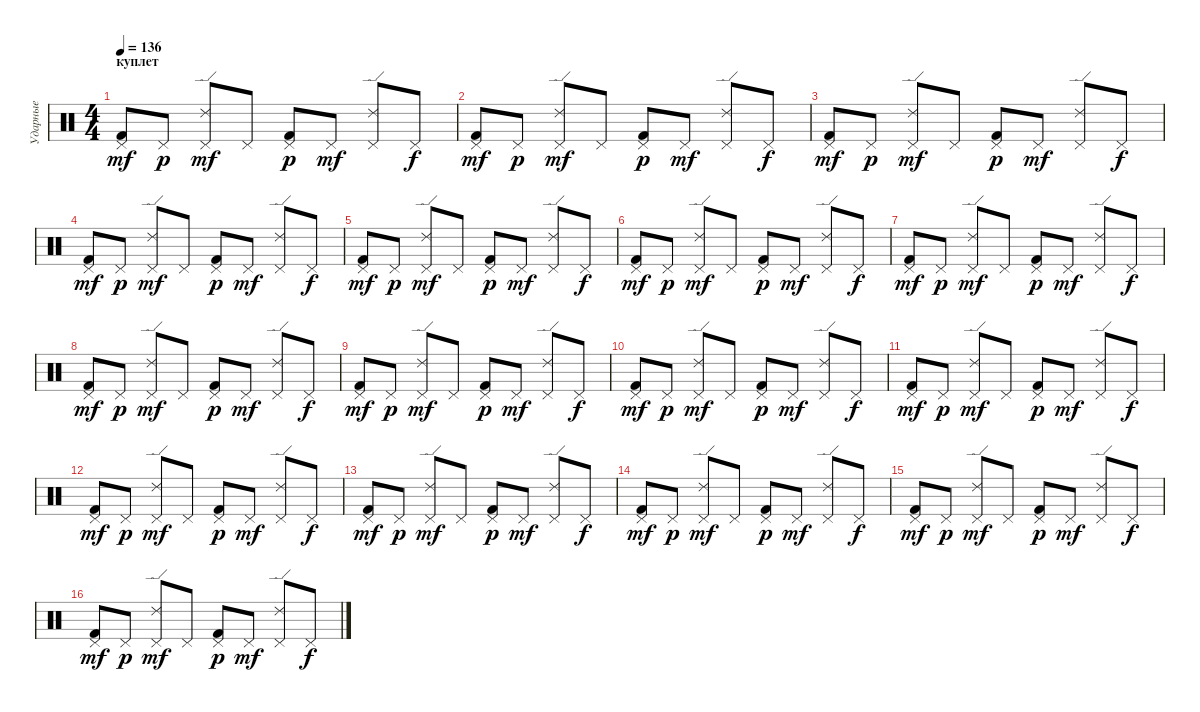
\track ("Ударные" "Ударные") {instrument percussion}
\staff {score}
\articulation defaults
\ts (4 4)
\section ("" "куплет")
\tempo 136
\clef neutral
\ks c
("Kick (hit) 2" "Pedal Hi-Hat (hit)").8{dy mf} "Pedal Hi-Hat (hit)".8{dy p} ("Ride (edge) 2" "Pedal Hi-Hat (hit)").8{dy mf} "Pedal Hi-Hat (hit)".8 ("Kick (hit) 2" "Pedal Hi-Hat (hit)").8{dy p} "Pedal Hi-Hat (hit)".8{dy mf} ("Ride (edge) 2" "Pedal Hi-Hat (hit)").8 "Pedal Hi-Hat (hit)".8{dy f} |
("Kick (hit) 2" "Pedal Hi-Hat (hit)").8{dy mf} "Pedal Hi-Hat (hit)".8{dy p} ("Ride (edge) 2" "Pedal Hi-Hat (hit)").8{dy mf} "Pedal Hi-Hat (hit)".8 ("Kick (hit) 2" "Pedal Hi-Hat (hit)").8{dy p} "Pedal Hi-Hat (hit)".8{dy mf} ("Ride (edge) 2" "Pedal Hi-Hat (hit)").8 "Pedal Hi-Hat (hit)".8{dy f} |
("Kick (hit) 2" "Pedal Hi-Hat (hit)").8{dy mf} "Pedal Hi-Hat (hit)".8{dy p} ("Ride (edge) 2" "Pedal Hi-Hat (hit)").8{dy mf} "Pedal Hi-Hat (hit)".8 ("Kick (hit) 2" "Pedal Hi-Hat (hit)").8{dy p} "Pedal Hi-Hat (hit)".8{dy mf} ("Ride (edge) 2" "Pedal Hi-Hat (hit)").8 "Pedal Hi-Hat (hit)".8{dy f} |
("Kick (hit) 2" "Pedal Hi-Hat (hit)").8{dy mf} "Pedal Hi-Hat (hit)".8{dy p} ("Ride (edge) 2" "Pedal Hi-Hat (hit)").8{dy mf} "Pedal Hi-Hat (hit)".8 ("Kick (hit) 2" "Pedal Hi-Hat (hit)").8{dy p} "Pedal Hi-Hat (hit)".8{dy mf} ("Ride (edge) 2" "Pedal Hi-Hat (hit)").8 "Pedal Hi-Hat (hit)".8{dy f} |
("Kick (hit) 2" "Pedal Hi-Hat (hit)").8{dy mf} "Pedal Hi-Hat (hit)".8{dy p} ("Ride (edge) 2" "Pedal Hi-Hat (hit)").8{dy mf} "Pedal Hi-Hat (hit)".8 ("Kick (hit) 2" "Pedal Hi-Hat (hit)").8{dy p} "Pedal Hi-Hat (hit)".8{dy mf} ("Ride (edge) 2" "Pedal Hi-Hat (hit)").8 "Pedal Hi-Hat (hit)".8{dy f} |
("Kick (hit) 2" "Pedal Hi-Hat (hit)").8{dy mf} "Pedal Hi-Hat (hit)".8{dy p} ("Ride (edge) 2" "Pedal Hi-Hat (hit)").8{dy mf} "Pedal Hi-Hat (hit)".8 ("Kick (hit) 2" "Pedal Hi-Hat (hit)").8{dy p} "Pedal Hi-Hat (hit)".8{dy mf} ("Ride (edge) 2" "Pedal Hi-Hat (hit)").8 "Pedal Hi-Hat (hit)".8{dy f} |
("Kick (hit) 2" "Pedal Hi-Hat (hit)").8{dy mf} "Pedal Hi-Hat (hit)".8{dy p} ("Ride (edge) 2" "Pedal Hi-Hat (hit)").8{dy mf} "Pedal Hi-Hat (hit)".8 ("Kick (hit) 2" "Pedal Hi-Hat (hit)").8{dy p} "Pedal Hi-Hat (hit)".8{dy mf} ("Ride (edge) 2" "Pedal Hi-Hat (hit)").8 "Pedal Hi-Hat (hit)".8{dy f} |
("Kick (hit) 2" "Pedal Hi-Hat (hit)").8{dy mf} "Pedal Hi-Hat (hit)".8{dy p} ("Ride (edge) 2" "Pedal Hi-Hat (hit)").8{dy mf} "Pedal Hi-Hat (hit)".8 ("Kick (hit) 2" "Pedal Hi-Hat (hit)").8{dy p} "Pedal Hi-Hat (hit)".8{dy mf} ("Ride (edge) 2" "Pedal Hi-Hat (hit)").8 "Pedal Hi-Hat (hit)".8{dy f} |
\section ("" " ")
("Kick (hit) 2" "Pedal Hi-Hat (hit)").8{dy mf} "Pedal Hi-Hat (hit)".8{dy p} ("Ride (edge) 2" "Pedal Hi-Hat (hit)").8{dy mf} "Pedal Hi-Hat (hit)".8 ("Kick (hit) 2" "Pedal Hi-Hat (hit)").8{dy p} "Pedal Hi-Hat (hit)".8{dy mf} ("Ride (edge) 2" "Pedal Hi-Hat (hit)").8 "Pedal Hi-Hat (hit)".8{dy f} |
("Kick (hit) 2" "Pedal Hi-Hat (hit)").8{dy mf} "Pedal Hi-Hat (hit)".8{dy p} ("Ride (edge) 2" "Pedal Hi-Hat (hit)").8{dy mf} "Pedal Hi-Hat (hit)".8 ("Kick (hit) 2" "Pedal Hi-Hat (hit)").8{dy p} "Pedal Hi-Hat (hit)".8{dy mf} ("Ride (edge) 2" "Pedal Hi-Hat (hit)").8 "Pedal Hi-Hat (hit)".8{dy f} |
("Kick (hit) 2" "Pedal Hi-Hat (hit)").8{dy mf} "Pedal Hi-Hat (hit)".8{dy p} ("Ride (edge) 2" "Pedal Hi-Hat (hit)").8{dy mf} "Pedal Hi-Hat (hit)".8 ("Kick (hit) 2" "Pedal Hi-Hat (hit)").8{dy p} "Pedal Hi-Hat (hit)".8{dy mf} ("Ride (edge) 2" "Pedal Hi-Hat (hit)").8 "Pedal Hi-Hat (hit)".8{dy f} |
("Kick (hit) 2" "Pedal Hi-Hat (hit)").8{dy mf} "Pedal Hi-Hat (hit)".8{dy p} ("Ride (edge) 2" "Pedal Hi-Hat (hit)").8{dy mf} "Pedal Hi-Hat (hit)".8 ("Kick (hit) 2" "Pedal Hi-Hat (hit)").8{dy p} "Pedal Hi-Hat (hit)".8{dy mf} ("Ride (edge) 2" "Pedal Hi-Hat (hit)").8 "Pedal Hi-Hat (hit)".8{dy f} |
("Kick (hit) 2" "Pedal Hi-Hat (hit)").8{dy mf} "Pedal Hi-Hat (hit)".8{dy p} ("Ride (edge) 2" "Pedal Hi-Hat (hit)").8{dy mf} "Pedal Hi-Hat (hit)".8 ("Kick (hit) 2" "Pedal Hi-Hat (hit)").8{dy p} "Pedal Hi-Hat (hit)".8{dy mf} ("Ride (edge) 2" "Pedal Hi-Hat (hit)").8 "Pedal Hi-Hat (hit)".8{dy f} |
("Kick (hit) 2" "Pedal Hi-Hat (hit)").8{dy mf} "Pedal Hi-Hat (hit)".8{dy p} ("Ride (edge) 2" "Pedal Hi-Hat (hit)").8{dy mf} "Pedal Hi-Hat (hit)".8 ("Kick (hit) 2" "Pedal Hi-Hat (hit)").8{dy p} "Pedal Hi-Hat (hit)".8{dy mf} ("Ride (edge) 2" "Pedal Hi-Hat (hit)").8 "Pedal Hi-Hat (hit)".8{dy f} |
("Kick (hit) 2" "Pedal Hi-Hat (hit)").8{dy mf} "Pedal Hi-Hat (hit)".8{dy p} ("Ride (edge) 2" "Pedal Hi-Hat (hit)").8{dy mf} "Pedal Hi-Hat (hit)".8 ("Kick (hit) 2" "Pedal Hi-Hat (hit)").8{dy p} "Pedal Hi-Hat (hit)".8{dy mf} ("Ride (edge) 2" "Pedal Hi-Hat (hit)").8 "Pedal Hi-Hat (hit)".8{dy f} |
("Kick (hit) 2" "Pedal Hi-Hat (hit)").8{dy mf} "Pedal Hi-Hat (hit)".8{dy p} ("Ride (edge) 2" "Pedal Hi-Hat (hit)").8{dy mf} "Pedal Hi-Hat (hit)".8 ("Kick (hit) 2" "Pedal Hi-Hat (hit)").8{dy p} "Pedal Hi-Hat (hit)".8{dy mf} ("Ride (edge) 2" "Pedal Hi-Hat (hit)").8 "Pedal Hi-Hat (hit)".8{dy f}
